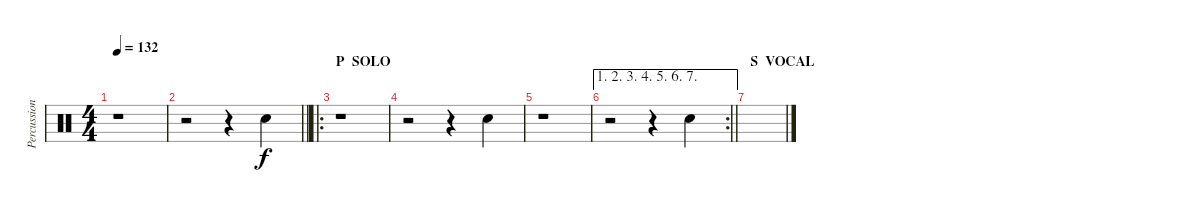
\track ("Percussions" "Percussion") {instrument percussion}
\staff {score}
\articulation defaults
\ts (4 4)
\tempo 132
\clef neutral
\ks c
r.1{dy f} |
\barLineRight lightlight
r.2 r.4 "Electric Snare (hit)".4 |
\ro
\section ("" "P  SOLO")
r.1 |
r.2 r.4 "Electric Snare (hit)".4 |
r.1 |
\ae (1 2 3 4 5 6 7)
\rc 2
\barLineRight lightlight
r.2 r.4 "Electric Snare (hit)".4 |
\section ("" "S  VOCAL")
